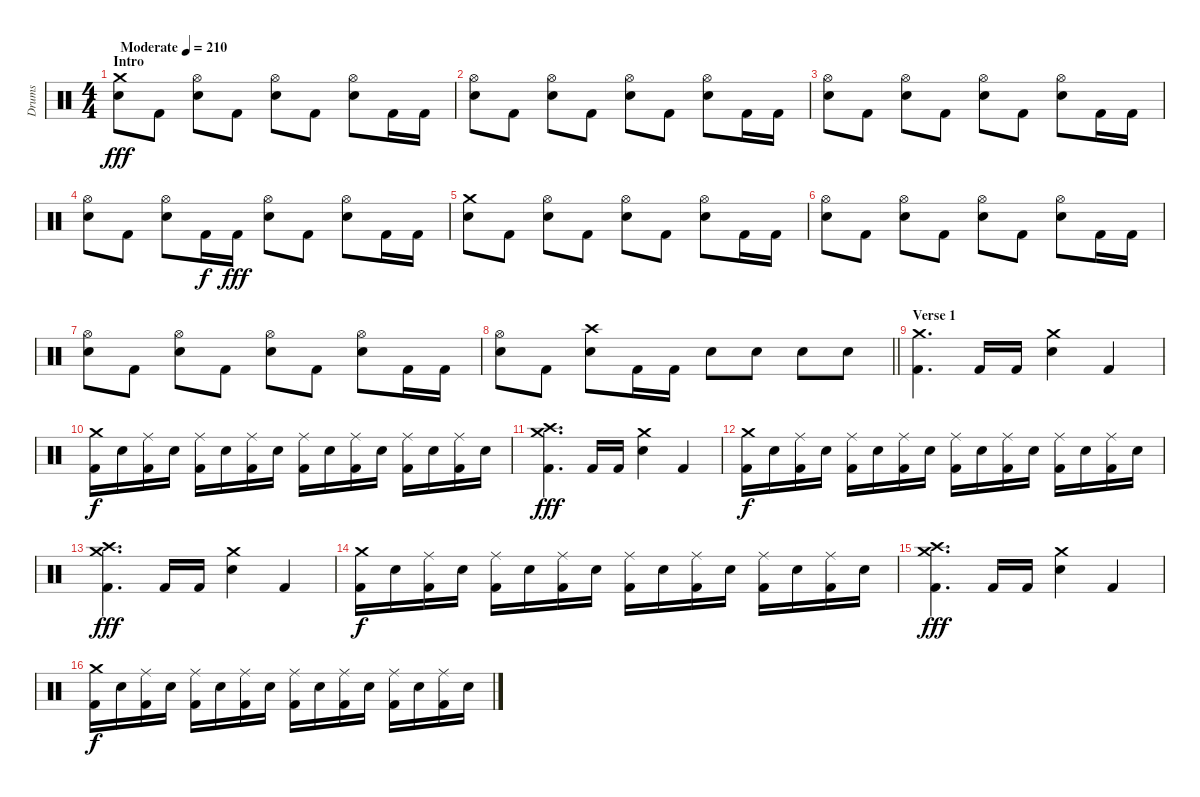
\track ("Drums" "Drums") {instrument percussion}
\staff {score}
\articulation defaults
\ts (4 4)
\section ("" "Intro")
\tempo (210 "Moderate")
\clef neutral
\ks c
("Crash medium (hit)" "Electric Snare (hit)").8{dy fff} "Kick (hit) 2".8 ("Hi-Hat (open)" "Electric Snare (hit)").8 "Kick (hit) 2".8 ("Hi-Hat (open)" "Electric Snare (hit)").8 "Kick (hit) 2".8 ("Hi-Hat (open)" "Electric Snare (hit)").8 "Kick (hit) 2".16 "Kick (hit) 2".16 |
("Hi-Hat (open)" "Electric Snare (hit)").8 "Kick (hit) 2".8 ("Hi-Hat (open)" "Electric Snare (hit)").8 "Kick (hit) 2".8 ("Hi-Hat (open)" "Electric Snare (hit)").8 "Kick (hit) 2".8 ("Hi-Hat (open)" "Electric Snare (hit)").8 "Kick (hit) 2".16 "Kick (hit) 2".16 |
("Hi-Hat (open)" "Electric Snare (hit)").8 "Kick (hit) 2".8 ("Hi-Hat (open)" "Electric Snare (hit)").8 "Kick (hit) 2".8 ("Hi-Hat (open)" "Electric Snare (hit)").8 "Kick (hit) 2".8 ("Hi-Hat (open)" "Electric Snare (hit)").8 "Kick (hit) 2".16 "Kick (hit) 2".16 |
("Hi-Hat (open)" "Electric Snare (hit)").8 "Kick (hit) 2".8 ("Hi-Hat (open)" "Electric Snare (hit)").8 "Kick (hit) 2".16{dy f} "Kick (hit) 2".16{dy fff} ("Hi-Hat (open)" "Electric Snare (hit)").8 "Kick (hit) 2".8 ("Hi-Hat (open)" "Electric Snare (hit)").8 "Kick (hit) 2".16 "Kick (hit) 2".16 |
("Crash medium (hit)" "Electric Snare (hit)").8 "Kick (hit) 2".8 ("Hi-Hat (open)" "Electric Snare (hit)").8 "Kick (hit) 2".8 ("Hi-Hat (open)" "Electric Snare (hit)").8 "Kick (hit) 2".8 ("Hi-Hat (open)" "Electric Snare (hit)").8 "Kick (hit) 2".16 "Kick (hit) 2".16 |
("Hi-Hat (open)" "Electric Snare (hit)").8 "Kick (hit) 2".8 ("Hi-Hat (open)" "Electric Snare (hit)").8 "Kick (hit) 2".8 ("Hi-Hat (open)" "Electric Snare (hit)").8 "Kick (hit) 2".8 ("Hi-Hat (open)" "Electric Snare (hit)").8 "Kick (hit) 2".16 "Kick (hit) 2".16 |
("Hi-Hat (open)" "Electric Snare (hit)").8 "Kick (hit) 2".8 ("Hi-Hat (open)" "Electric Snare (hit)").8 "Kick (hit) 2".8 ("Hi-Hat (open)" "Electric Snare (hit)").8 "Kick (hit) 2".8 ("Hi-Hat (open)" "Electric Snare (hit)").8 "Kick (hit) 2".16 "Kick (hit) 2".16 |
\barLineRight lightlight
("Hi-Hat (open)" "Electric Snare (hit)").8 "Kick (hit) 2".8 ("Crash high (hit)" "Electric Snare (hit)").8 "Kick (hit) 2".16 "Kick (hit) 2".16 "Electric Snare (hit)".8 "Electric Snare (hit)".8 "Electric Snare (hit)".8 "Electric Snare (hit)".8 |
\section ("" "Verse 1")
("Crash medium (hit)" "Kick (hit) 2").4{d} "Kick (hit) 2".16 "Kick (hit) 2".16 ("Crash medium (hit)" "Electric Snare (hit)").4 "Kick (hit) 2".4 |
("Crash medium (hit)" "Kick (hit) 2").16{dy f} "Electric Snare (hit)".16 ("Ride (middle)" "Kick (hit) 2").16 "Electric Snare (hit)".16 ("Ride (middle)" "Kick (hit) 2").16 "Electric Snare (hit)".16 ("Ride (middle)" "Kick (hit) 2").16 "Electric Snare (hit)".16 ("Ride (middle)" "Kick (hit) 2").16 "Electric Snare (hit)".16 ("Ride (middle)" "Kick (hit) 2").16 "Electric Snare (hit)".16 ("Ride (middle)" "Kick (hit) 2").16 "Electric Snare (hit)".16 ("Ride (middle)" "Kick (hit) 2").16 "Electric Snare (hit)".16 |
("Crash high (hit)" "Crash medium (hit)" "Kick (hit) 2").4{d dy fff} "Kick (hit) 2".16 "Kick (hit) 2".16 ("Crash medium (hit)" "Electric Snare (hit)").4 "Kick (hit) 2".4 |
("Crash medium (hit)" "Kick (hit) 2").16{dy f} "Electric Snare (hit)".16 ("Ride (middle)" "Kick (hit) 2").16 "Electric Snare (hit)".16 ("Ride (middle)" "Kick (hit) 2").16 "Electric Snare (hit)".16 ("Ride (middle)" "Kick (hit) 2").16 "Electric Snare (hit)".16 ("Ride (middle)" "Kick (hit) 2").16 "Electric Snare (hit)".16 ("Ride (middle)" "Kick (hit) 2").16 "Electric Snare (hit)".16 ("Ride (middle)" "Kick (hit) 2").16 "Electric Snare (hit)".16 ("Ride (middle)" "Kick (hit) 2").16 "Electric Snare (hit)".16 |
("Crash high (hit)" "Crash medium (hit)" "Kick (hit) 2").4{d dy fff} "Kick (hit) 2".16 "Kick (hit) 2".16 ("Crash medium (hit)" "Electric Snare (hit)").4 "Kick (hit) 2".4 |
("Crash medium (hit)" "Kick (hit) 2").16{dy f} "Electric Snare (hit)".16 ("Ride (middle)" "Kick (hit) 2").16 "Electric Snare (hit)".16 ("Ride (middle)" "Kick (hit) 2").16 "Electric Snare (hit)".16 ("Ride (middle)" "Kick (hit) 2").16 "Electric Snare (hit)".16 ("Ride (middle)" "Kick (hit) 2").16 "Electric Snare (hit)".16 ("Ride (middle)" "Kick (hit) 2").16 "Electric Snare (hit)".16 ("Ride (middle)" "Kick (hit) 2").16 "Electric Snare (hit)".16 ("Ride (middle)" "Kick (hit) 2").16 "Electric Snare (hit)".16 |
("Crash high (hit)" "Crash medium (hit)" "Kick (hit) 2").4{d dy fff} "Kick (hit) 2".16 "Kick (hit) 2".16 ("Crash medium (hit)" "Electric Snare (hit)").4 "Kick (hit) 2".4 |
("Crash medium (hit)" "Kick (hit) 2").16{dy f} "Electric Snare (hit)".16 ("Ride (middle)" "Kick (hit) 2").16 "Electric Snare (hit)".16 ("Ride (middle)" "Kick (hit) 2").16 "Electric Snare (hit)".16 ("Ride (middle)" "Kick (hit) 2").16 "Electric Snare (hit)".16 ("Ride (middle)" "Kick (hit) 2").16 "Electric Snare (hit)".16 ("Ride (middle)" "Kick (hit) 2").16 "Electric Snare (hit)".16 ("Ride (middle)" "Kick (hit) 2").16 "Electric Snare (hit)".16 ("Ride (middle)" "Kick (hit) 2").16 "Electric Snare (hit)".16
